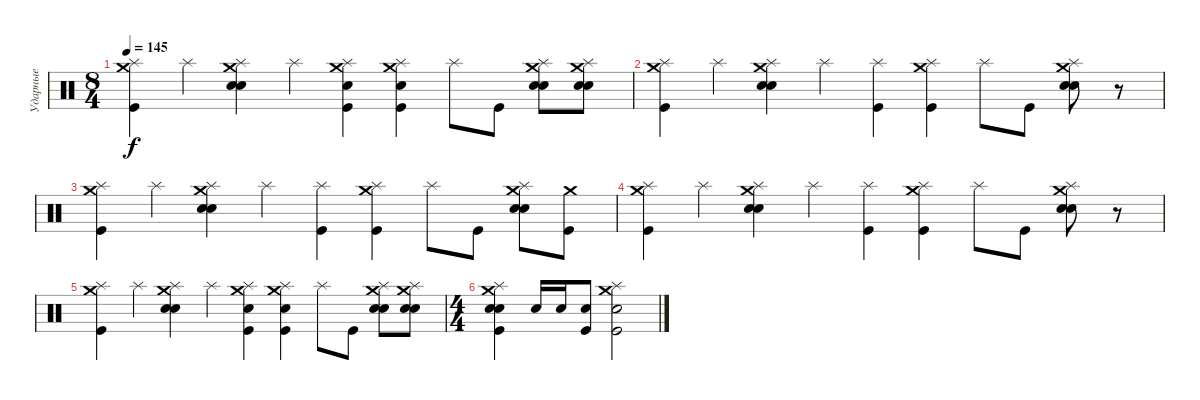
\track ("Ударные" "Ударные") {instrument percussion}
\staff {score}
\articulation defaults
\ts (8 4)
\tempo 145
\clef neutral
\ks c
("Splash (hit)" "Crash medium (hit)" "Kick (hit)").4{dy f} "Splash (hit)".4 ("Splash (hit)" "Crash medium (hit)" "Electric Snare (hit)" "Electric Snare (hit)").4 "Splash (hit)".4 ("Splash (hit)" "Crash medium (hit)" "Electric Snare (hit)" "Kick (hit)").4 ("Splash (hit)" "Crash medium (hit)" "Electric Snare (hit)" "Kick (hit)").4 "Splash (hit)".8 "Kick (hit)".8 ("Splash (hit)" "Crash medium (hit)" "Electric Snare (hit)" "Electric Snare (hit)").8 ("Splash (hit)" "Crash medium (hit)" "Electric Snare (hit)" "Electric Snare (hit)").8 |
("Splash (hit)" "Crash medium (hit)" "Kick (hit)").4 "Splash (hit)".4 ("Splash (hit)" "Crash medium (hit)" "Electric Snare (hit)" "Electric Snare (hit)").4 "Splash (hit)".4 ("Splash (hit)" "Kick (hit)").4 ("Splash (hit)" "Crash medium (hit)" "Kick (hit)").4 "Splash (hit)".8 "Kick (hit)".8 ("Splash (hit)" "Crash medium (hit)" "Electric Snare (hit)" "Electric Snare (hit)").8 r.8 |
("Splash (hit)" "Crash medium (hit)" "Kick (hit)").4 "Splash (hit)".4 ("Splash (hit)" "Crash medium (hit)" "Electric Snare (hit)" "Electric Snare (hit)").4 "Splash (hit)".4 ("Splash (hit)" "Kick (hit)").4 ("Splash (hit)" "Crash medium (hit)" "Kick (hit)").4 "Splash (hit)".8 "Kick (hit)".8 ("Splash (hit)" "Crash medium (hit)" "Electric Snare (hit)" "Electric Snare (hit)").8 ("Crash medium (hit)" "Kick (hit)").8 |
("Splash (hit)" "Crash medium (hit)" "Kick (hit)").4 "Splash (hit)".4 ("Splash (hit)" "Crash medium (hit)" "Electric Snare (hit)" "Electric Snare (hit)").4 "Splash (hit)".4 ("Splash (hit)" "Kick (hit)").4 ("Splash (hit)" "Crash medium (hit)" "Kick (hit)").4 "Splash (hit)".8 "Kick (hit)".8 ("Splash (hit)" "Crash medium (hit)" "Electric Snare (hit)" "Electric Snare (hit)").8 r.8 |
("Splash (hit)" "Crash medium (hit)" "Kick (hit)").4 "Splash (hit)".4 ("Splash (hit)" "Crash medium (hit)" "Electric Snare (hit)" "Electric Snare (hit)").4 "Splash (hit)".4 ("Splash (hit)" "Crash medium (hit)" "Electric Snare (hit)" "Kick (hit)").4 ("Splash (hit)" "Crash medium (hit)" "Electric Snare (hit)" "Kick (hit)").4 "Splash (hit)".8 "Kick (hit)".8 ("Splash (hit)" "Crash medium (hit)" "Electric Snare (hit)" "Electric Snare (hit)").8 ("Splash (hit)" "Crash medium (hit)" "Electric Snare (hit)" "Electric Snare (hit)").8 |
\ts (4 4)
("Crash medium (hit)" "Splash (hit)" "Snare (hit) 2" "Snare (hit) 2" "Kick (hit)").4 "Electric Snare (hit)".16 "Electric Snare (hit)".16 ("Electric Snare (hit)" "Kick (hit)").8 ("Splash (hit)" "Crash medium (hit)" "Electric Snare (hit)" "Kick (hit)").2
